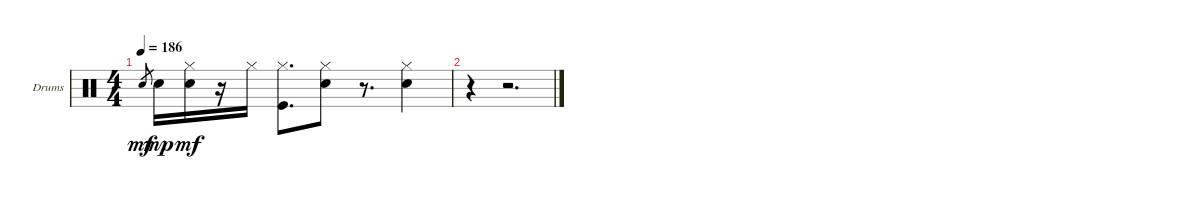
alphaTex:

\bracketExtendMode groupsimilarinstruments
\firstSystemTrackNameOrientation horizontal
\otherSystemsTrackNameOrientation horizontal
\track ("Drumkit" "Drums") {instrument percussion}
\staff {score}
\articulation defaults
\ts (4 4)
\tempo 186
\clef neutral
\ks c "Snare (hit) 2".8{gr dy mf} "Snare (hit) 2".16{dy mp}
("Hi-Hat (closed)" "Snare (hit) 2"{t}).16{dy mf} r.16 "Hi-Hat (closed)".16 ("Hi-Hat (closed)" "Kick (hit)").8{d} ("Hi-Hat (closed)" "Snare (hit) 2").8 r.8{d} ("Hi-Hat (closed)" "Snare (hit) 2").4 |
r.4 r.2{d}
